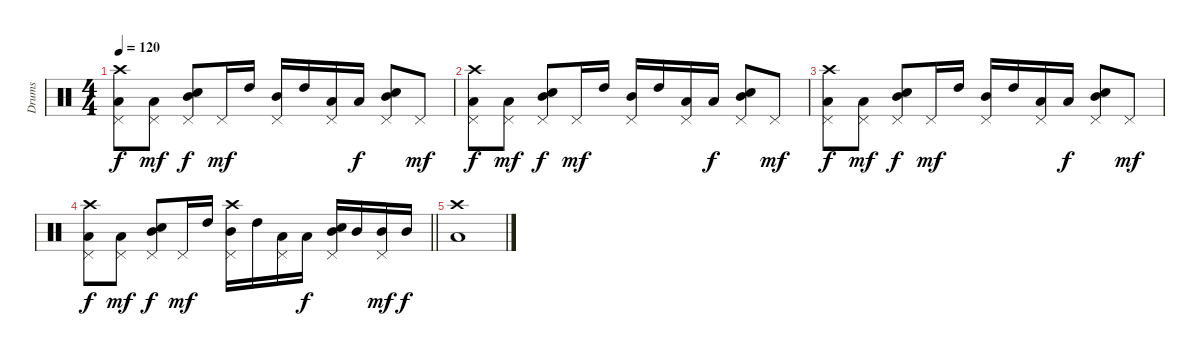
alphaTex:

\track ("Drums" "Drums") {instrument percussion}
\staff {score}
\articulation defaults
\ts (4 4)
\tempo 120
\clef neutral
\ks c
("Crash high (hit)" "Pedal Hi-Hat (hit)" "Low Tom (hit)").8{dy f} ("Pedal Hi-Hat (hit)" "Low Tom (hit)").8{dy mf} ("Pedal Hi-Hat (hit)" "Mid Tom (hit)" "Electric Snare (hit)").8{dy f} "Pedal Hi-Hat (hit)".16{dy mf} "High Tom (hit)".16 ("Pedal Hi-Hat (hit)" "Mid Tom (hit)").16 "High Tom (hit)".16 ("Pedal Hi-Hat (hit)" "Low Tom (hit)").16 "Low Tom (hit)".16{dy f} ("Pedal Hi-Hat (hit)" "Mid Tom (hit)" "Electric Snare (hit)").8 "Pedal Hi-Hat (hit)".8{dy mf} |
("Crash high (hit)" "Pedal Hi-Hat (hit)" "Low Tom (hit)").8{dy f} ("Pedal Hi-Hat (hit)" "Low Tom (hit)").8{dy mf} ("Pedal Hi-Hat (hit)" "Mid Tom (hit)" "Electric Snare (hit)").8{dy f} "Pedal Hi-Hat (hit)".16{dy mf} "High Tom (hit)".16 ("Pedal Hi-Hat (hit)" "Mid Tom (hit)").16 "High Tom (hit)".16 ("Pedal Hi-Hat (hit)" "Low Tom (hit)").16 "Low Tom (hit)".16{dy f} ("Pedal Hi-Hat (hit)" "Mid Tom (hit)" "Electric Snare (hit)").8 "Pedal Hi-Hat (hit)".8{dy mf} |
("Crash high (hit)" "Pedal Hi-Hat (hit)" "Low Tom (hit)").8{dy f} ("Pedal Hi-Hat (hit)" "Low Tom (hit)").8{dy mf} ("Pedal Hi-Hat (hit)" "Mid Tom (hit)" "Electric Snare (hit)").8{dy f} "Pedal Hi-Hat (hit)".16{dy mf} "High Tom (hit)".16 ("Pedal Hi-Hat (hit)" "Mid Tom (hit)").16 "High Tom (hit)".16 ("Pedal Hi-Hat (hit)" "Low Tom (hit)").16 "Low Tom (hit)".16{dy f} ("Pedal Hi-Hat (hit)" "Mid Tom (hit)" "Electric Snare (hit)").8 "Pedal Hi-Hat (hit)".8{dy mf} |
\barLineRight lightlight
("Crash high (hit)" "Pedal Hi-Hat (hit)" "Low Tom (hit)").8{dy f} ("Pedal Hi-Hat (hit)" "Low Tom (hit)").8{dy mf} ("Pedal Hi-Hat (hit)" "Mid Tom (hit)" "Electric Snare (hit)").8{dy f} "Pedal Hi-Hat (hit)".16{dy mf} "High Tom (hit)".16 ("Crash high (hit)" "Pedal Hi-Hat (hit)" "Mid Tom (hit)").16 "High Tom (hit)".16 ("Pedal Hi-Hat (hit)" "Low Tom (hit)").16 "Low Tom (hit)".16{dy f} ("Pedal Hi-Hat (hit)" "Mid Tom (hit)" "Electric Snare (hit)").16 "Mid Tom (hit)".16 ("Pedal Hi-Hat (hit)" "Mid Tom (hit)").16{dy mf} "Mid Tom (hit)".16{dy f} |
("Crash high (hit)" "Low Floor Tom (hit)").1
